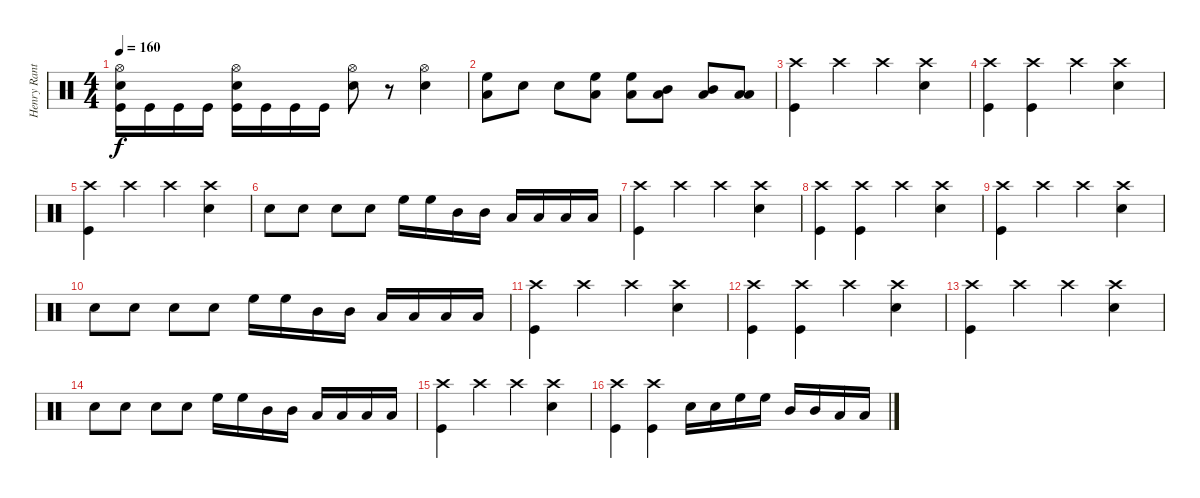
\track ("Henry Ranta" "Henry Rant") {instrument percussion}
\staff {score}
\articulation defaults
\ts (4 4)
\tempo 160
\clef neutral
\ks c
("Hi-Hat (open)" "Snare (hit) 2" "Kick (hit)").16{dy f} "Kick (hit)".16 "Kick (hit)".16 "Kick (hit)".16 ("Hi-Hat (open)" "Snare (hit) 2" "Kick (hit)").16 "Kick (hit)".16 "Kick (hit)".16 "Kick (hit)".16 ("Hi-Hat (open)" "Snare (hit) 2").8 r.8 ("Hi-Hat (open)" "Snare (hit) 2").4 |
("Low Floor Tom (hit)" "High Floor Tom (hit)").8 "Snare (hit) 2".8 "Snare (hit) 2".8 ("Low Floor Tom (hit)" "High Floor Tom (hit)").8 ("Low Floor Tom (hit)" "High Floor Tom (hit)").8 ("Low Floor Tom (hit)" "Mid Tom (hit)").8 ("Low Floor Tom (hit)" "Mid Tom (hit)").8 ("Low Floor Tom (hit)" "Low Tom (hit)").8 |
("Crash high (hit)" "Kick (hit)").4 "Crash high (hit)".4 "Crash high (hit)".4 ("Crash high (hit)" "Snare (hit) 2").4 |
("Crash high (hit)" "Kick (hit)").4 ("Crash high (hit)" "Kick (hit)").4 "Crash high (hit)".4 ("Crash high (hit)" "Snare (hit) 2").4 |
("Crash high (hit)" "Kick (hit)").4 "Crash high (hit)".4 "Crash high (hit)".4 ("Crash high (hit)" "Snare (hit) 2").4 |
"Snare (hit) 2".8 "Snare (hit) 2".8 "Snare (hit) 2".8 "Snare (hit) 2".8 "High Floor Tom (hit)".16 "High Floor Tom (hit)".16 "Mid Tom (hit)".16 "Mid Tom (hit)".16 "Low Tom (hit)".16 "Low Tom (hit)".16 "Low Floor Tom (hit)".16 "Low Floor Tom (hit)".16 |
("Crash high (hit)" "Kick (hit)").4 "Crash high (hit)".4 "Crash high (hit)".4 ("Crash high (hit)" "Snare (hit) 2").4 |
("Crash high (hit)" "Kick (hit)").4 ("Crash high (hit)" "Kick (hit)").4 "Crash high (hit)".4 ("Crash high (hit)" "Snare (hit) 2").4 |
("Crash high (hit)" "Kick (hit)").4 "Crash high (hit)".4 "Crash high (hit)".4 ("Crash high (hit)" "Snare (hit) 2").4 |
"Snare (hit) 2".8 "Snare (hit) 2".8 "Snare (hit) 2".8 "Snare (hit) 2".8 "High Floor Tom (hit)".16 "High Floor Tom (hit)".16 "Mid Tom (hit)".16 "Mid Tom (hit)".16 "Low Tom (hit)".16 "Low Tom (hit)".16 "Low Floor Tom (hit)".16 "Low Floor Tom (hit)".16 |
("Crash high (hit)" "Kick (hit)").4 "Crash high (hit)".4 "Crash high (hit)".4 ("Crash high (hit)" "Snare (hit) 2").4 |
("Crash high (hit)" "Kick (hit)").4 ("Crash high (hit)" "Kick (hit)").4 "Crash high (hit)".4 ("Crash high (hit)" "Snare (hit) 2").4 |
("Crash high (hit)" "Kick (hit)").4 "Crash high (hit)".4 "Crash high (hit)".4 ("Crash high (hit)" "Snare (hit) 2").4 |
"Snare (hit) 2".8 "Snare (hit) 2".8 "Snare (hit) 2".8 "Snare (hit) 2".8 "High Floor Tom (hit)".16 "High Floor Tom (hit)".16 "Mid Tom (hit)".16 "Mid Tom (hit)".16 "Low Tom (hit)".16 "Low Tom (hit)".16 "Low Floor Tom (hit)".16 "Low Floor Tom (hit)".16 |
("Crash high (hit)" "Kick (hit)").4 "Crash high (hit)".4 "Crash high (hit)".4 ("Crash high (hit)" "Snare (hit) 2").4 |
("Crash high (hit)" "Kick (hit)").4 ("Crash high (hit)" "Kick (hit)").4 "Snare (hit) 2".16 "Snare (hit) 2".16 "High Floor Tom (hit)".16 "High Floor Tom (hit)".16 "Mid Tom (hit)".16 "Mid Tom (hit)".16 "Low Tom (hit)".16 "Low Tom (hit)".16
